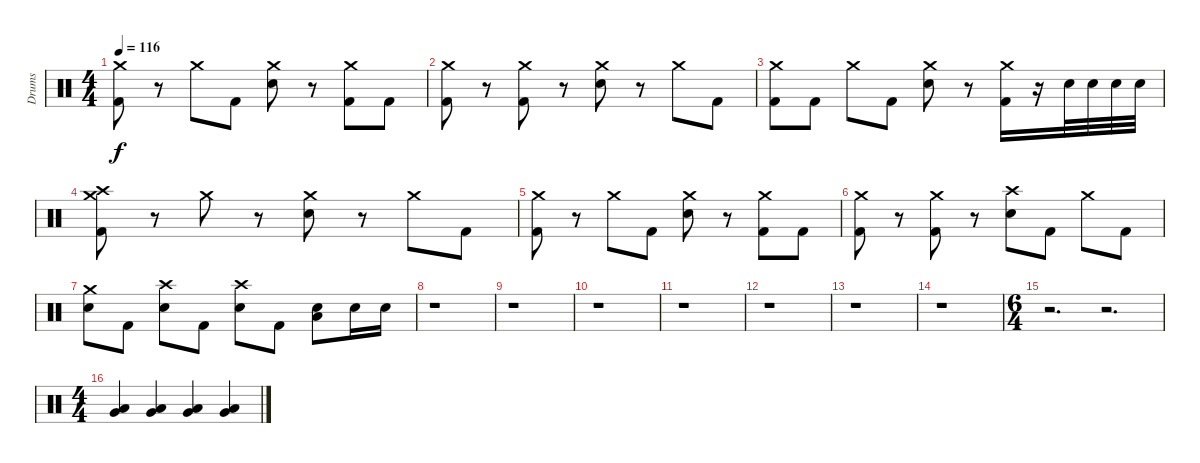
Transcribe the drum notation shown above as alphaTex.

\track ("Drums" "Drums") {instrument percussion}
\staff {score}
\articulation defaults
\ts (4 4)
\tempo 116
\clef neutral
\ks c
("Crash medium (hit)" "Kick (hit) 2").8{dy f} r.8 "Crash medium (hit)".8 "Kick (hit) 2".8 ("Crash medium (hit)" "Snare (hit) 2").8 r.8 ("Crash medium (hit)" "Kick (hit) 2").8 "Kick (hit) 2".8 |
("Crash medium (hit)" "Kick (hit) 2").8 r.8 ("Crash medium (hit)" "Kick (hit) 2").8 r.8 ("Crash medium (hit)" "Snare (hit) 2").8 r.8 "Crash medium (hit)".8 "Kick (hit) 2".8 |
("Crash medium (hit)" "Kick (hit) 2").8 "Kick (hit) 2".8 "Crash medium (hit)".8 "Kick (hit) 2".8 ("Crash medium (hit)" "Snare (hit) 2").8 r.8 ("Crash medium (hit)" "Kick (hit) 2").16 r.16 "Snare (hit) 2".32 "Snare (hit) 2".32 "Snare (hit) 2".32 "Snare (hit) 2".32 |
("Crash high (hit)" "Crash medium (hit)" "Kick (hit) 2").8 r.8 "Crash medium (hit)".8 r.8 ("Crash medium (hit)" "Snare (hit) 2").8 r.8 "Crash medium (hit)".8 "Kick (hit) 2".8 |
("Crash medium (hit)" "Kick (hit) 2").8 r.8 "Crash medium (hit)".8 "Kick (hit) 2".8 ("Crash medium (hit)" "Snare (hit) 2").8 r.8 ("Crash medium (hit)" "Kick (hit) 2").8 "Kick (hit) 2".8 |
("Crash medium (hit)" "Kick (hit) 2").8 r.8 ("Crash medium (hit)" "Kick (hit) 2").8 r.8 ("Crash high (hit)" "Snare (hit) 2").8 "Kick (hit) 2".8 "Crash medium (hit)".8 "Kick (hit) 2".8 |
("Crash medium (hit)" "Snare (hit) 2").8 "Kick (hit) 2".8 ("Crash high (hit)" "Snare (hit) 2").8 "Kick (hit) 2".8 ("Crash high (hit)" "Snare (hit) 2").8 "Kick (hit) 2".8 ("Low Floor Tom (hit)" "Snare (hit) 2").8 "Snare (hit) 2".16 "Snare (hit) 2".16 |
r.1 |
r.1 |
r.1 |
r.1 |
r.1 |
r.1 |
r.1 |
\ts (6 4)
r.2{d} r.2{d} |
\ts (4 4)
("Low Tom (hit)" "Very Low Tom (hit)").4 ("Low Tom (hit)" "Very Low Tom (hit)").4 ("Low Tom (hit)" "Very Low Tom (hit)").4 ("Low Tom (hit)" "Very Low Tom (hit)").4
